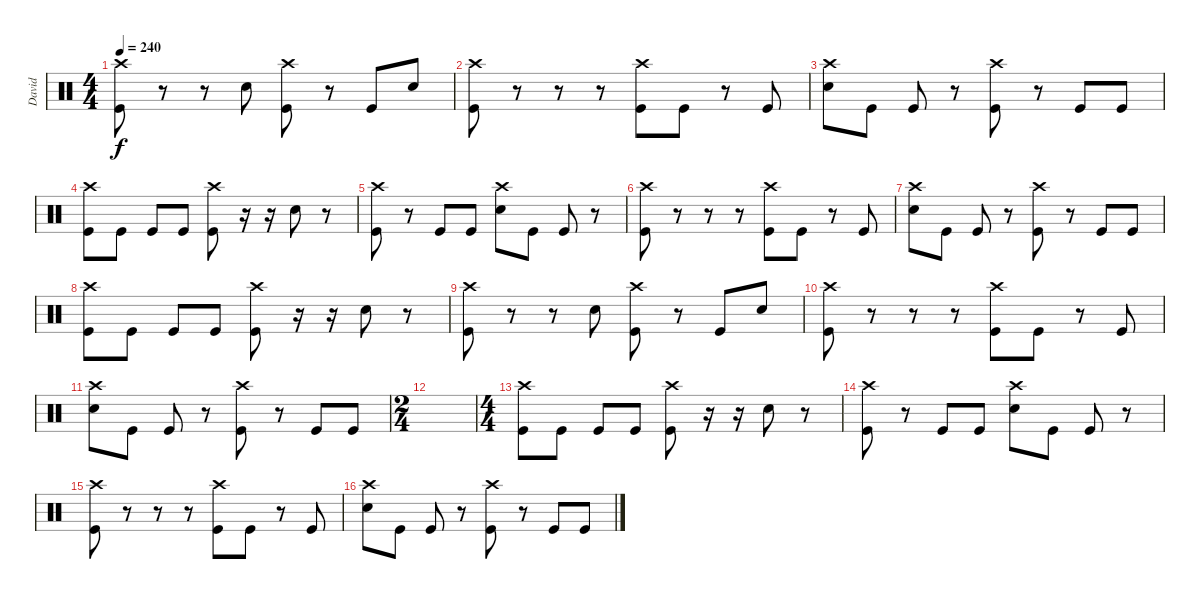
\track ("David" "David") {instrument percussion}
\staff {score}
\articulation defaults
\ts (4 4)
\tempo 240
\clef neutral
\ks c
("Crash high (hit)" "Kick (hit)").8{dy f} r.8 r.8 "Electric Snare (hit)".8 ("Crash high (hit)" "Kick (hit)").8 r.8 "Kick (hit)".8 "Electric Snare (hit)".8 |
("Crash high (hit)" "Kick (hit)").8 r.8 r.8 r.8 ("Crash high (hit)" "Kick (hit)").8 "Kick (hit)".8 r.8 "Kick (hit)".8 |
("Crash high (hit)" "Electric Snare (hit)").8 "Kick (hit)".8 "Kick (hit)".8 r.8 ("Crash high (hit)" "Kick (hit)").8 r.8 "Kick (hit)".8 "Kick (hit)".8 |
("Crash high (hit)" "Kick (hit)").8 "Kick (hit)".8 "Kick (hit)".8 "Kick (hit)".8 ("Crash high (hit)" "Kick (hit)").8 r.16 r.16 "Electric Snare (hit)".8 r.8 |
("Crash high (hit)" "Kick (hit)").8 r.8 "Kick (hit)".8 "Kick (hit)".8 ("Crash high (hit)" "Electric Snare (hit)").8 "Kick (hit)".8 "Kick (hit)".8 r.8 |
("Crash high (hit)" "Kick (hit)").8 r.8 r.8 r.8 ("Crash high (hit)" "Kick (hit)").8 "Kick (hit)".8 r.8 "Kick (hit)".8 |
("Crash high (hit)" "Electric Snare (hit)").8 "Kick (hit)".8 "Kick (hit)".8 r.8 ("Crash high (hit)" "Kick (hit)").8 r.8 "Kick (hit)".8 "Kick (hit)".8 |
("Crash high (hit)" "Kick (hit)").8 "Kick (hit)".8 "Kick (hit)".8 "Kick (hit)".8 ("Crash high (hit)" "Kick (hit)").8 r.16 r.16 "Electric Snare (hit)".8 r.8 |
("Crash high (hit)" "Kick (hit)").8 r.8 r.8 "Electric Snare (hit)".8 ("Crash high (hit)" "Kick (hit)").8 r.8 "Kick (hit)".8 "Electric Snare (hit)".8 |
("Crash high (hit)" "Kick (hit)").8 r.8 r.8 r.8 ("Crash high (hit)" "Kick (hit)").8 "Kick (hit)".8 r.8 "Kick (hit)".8 |
("Crash high (hit)" "Electric Snare (hit)").8 "Kick (hit)".8 "Kick (hit)".8 r.8 ("Crash high (hit)" "Kick (hit)").8 r.8 "Kick (hit)".8 "Kick (hit)".8 |
\ts (2 4)
|
\ts (4 4)
("Crash high (hit)" "Kick (hit)").8 "Kick (hit)".8 "Kick (hit)".8 "Kick (hit)".8 ("Crash high (hit)" "Kick (hit)").8 r.16 r.16 "Electric Snare (hit)".8 r.8 |
("Crash high (hit)" "Kick (hit)").8 r.8 "Kick (hit)".8 "Kick (hit)".8 ("Crash high (hit)" "Electric Snare (hit)").8 "Kick (hit)".8 "Kick (hit)".8 r.8 |
("Crash high (hit)" "Kick (hit)").8 r.8 r.8 r.8 ("Crash high (hit)" "Kick (hit)").8 "Kick (hit)".8 r.8 "Kick (hit)".8 |
("Crash high (hit)" "Electric Snare (hit)").8 "Kick (hit)".8 "Kick (hit)".8 r.8 ("Crash high (hit)" "Kick (hit)").8 r.8 "Kick (hit)".8 "Kick (hit)".8
